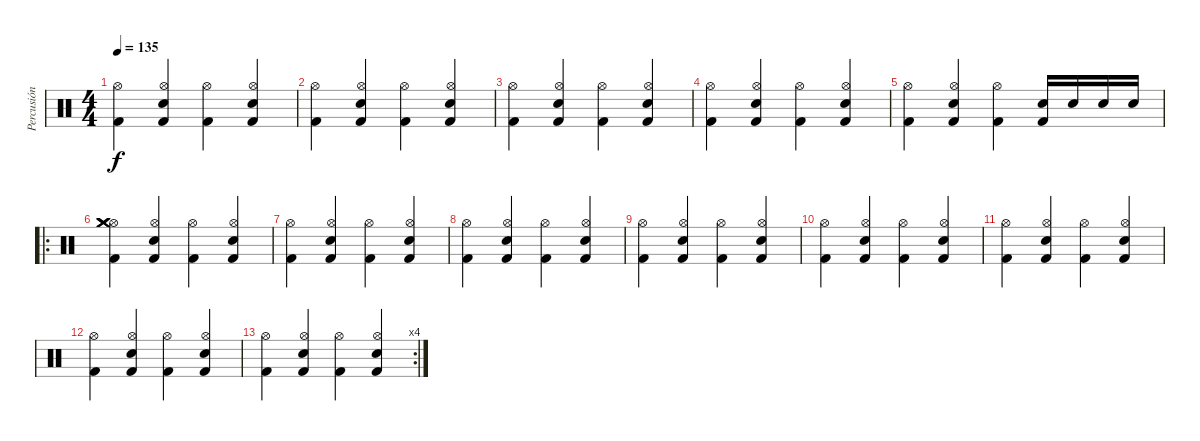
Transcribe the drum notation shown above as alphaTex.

\track ("Percusión" "Percusión") {instrument percussion}
\staff {score}
\articulation defaults
\ts (4 4)
\tempo 135
\clef neutral
\ks c
("Kick (hit) 2" "Hi-Hat (open)").4{dy f} ("Kick (hit) 2" "Electric Snare (hit)" "Hi-Hat (open)").4 ("Kick (hit) 2" "Hi-Hat (open)").4 ("Kick (hit) 2" "Electric Snare (hit)" "Hi-Hat (open)").4 |
("Kick (hit) 2" "Hi-Hat (open)").4 ("Kick (hit) 2" "Electric Snare (hit)" "Hi-Hat (open)").4 ("Kick (hit) 2" "Hi-Hat (open)").4 ("Kick (hit) 2" "Electric Snare (hit)" "Hi-Hat (open)").4 |
("Kick (hit) 2" "Hi-Hat (open)").4 ("Kick (hit) 2" "Electric Snare (hit)" "Hi-Hat (open)").4 ("Kick (hit) 2" "Hi-Hat (open)").4 ("Kick (hit) 2" "Electric Snare (hit)" "Hi-Hat (open)").4 |
("Kick (hit) 2" "Hi-Hat (open)").4 ("Kick (hit) 2" "Electric Snare (hit)" "Hi-Hat (open)").4 ("Kick (hit) 2" "Hi-Hat (open)").4 ("Kick (hit) 2" "Electric Snare (hit)" "Hi-Hat (open)").4 |
("Kick (hit) 2" "Hi-Hat (open)").4 ("Kick (hit) 2" "Electric Snare (hit)" "Hi-Hat (open)").4 ("Kick (hit) 2" "Hi-Hat (open)").4 ("Kick (hit) 2" "Electric Snare (hit)").16 "Electric Snare (hit)".16 "Electric Snare (hit)".16 "Electric Snare (hit)".16 |
\ro
("Kick (hit) 2" "Hi-Hat (open)" "Crash medium (hit)" "Crash medium (hit)" "Crash medium (hit)").4 ("Kick (hit) 2" "Electric Snare (hit)" "Hi-Hat (open)").4 ("Kick (hit) 2" "Hi-Hat (open)").4 ("Kick (hit) 2" "Electric Snare (hit)" "Hi-Hat (open)").4 |
("Kick (hit) 2" "Hi-Hat (open)").4 ("Kick (hit) 2" "Electric Snare (hit)" "Hi-Hat (open)").4 ("Kick (hit) 2" "Hi-Hat (open)").4 ("Kick (hit) 2" "Electric Snare (hit)" "Hi-Hat (open)").4 |
("Kick (hit) 2" "Hi-Hat (open)").4 ("Kick (hit) 2" "Electric Snare (hit)" "Hi-Hat (open)").4 ("Kick (hit) 2" "Hi-Hat (open)").4 ("Kick (hit) 2" "Electric Snare (hit)" "Hi-Hat (open)").4 |
("Kick (hit) 2" "Hi-Hat (open)").4 ("Kick (hit) 2" "Electric Snare (hit)" "Hi-Hat (open)").4 ("Kick (hit) 2" "Hi-Hat (open)").4 ("Kick (hit) 2" "Electric Snare (hit)" "Hi-Hat (open)").4 |
("Kick (hit) 2" "Hi-Hat (open)").4 ("Kick (hit) 2" "Electric Snare (hit)" "Hi-Hat (open)").4 ("Kick (hit) 2" "Hi-Hat (open)").4 ("Kick (hit) 2" "Electric Snare (hit)" "Hi-Hat (open)").4 |
("Kick (hit) 2" "Hi-Hat (open)").4 ("Kick (hit) 2" "Electric Snare (hit)" "Hi-Hat (open)").4 ("Kick (hit) 2" "Hi-Hat (open)").4 ("Kick (hit) 2" "Electric Snare (hit)" "Hi-Hat (open)").4 |
("Kick (hit) 2" "Hi-Hat (open)").4 ("Kick (hit) 2" "Electric Snare (hit)" "Hi-Hat (open)").4 ("Kick (hit) 2" "Hi-Hat (open)").4 ("Kick (hit) 2" "Electric Snare (hit)" "Hi-Hat (open)").4 |
\rc 4
("Kick (hit) 2" "Hi-Hat (open)").4 ("Kick (hit) 2" "Electric Snare (hit)" "Hi-Hat (open)").4 ("Kick (hit) 2" "Hi-Hat (open)").4 ("Kick (hit) 2" "Electric Snare (hit)" "Hi-Hat (open)").4
